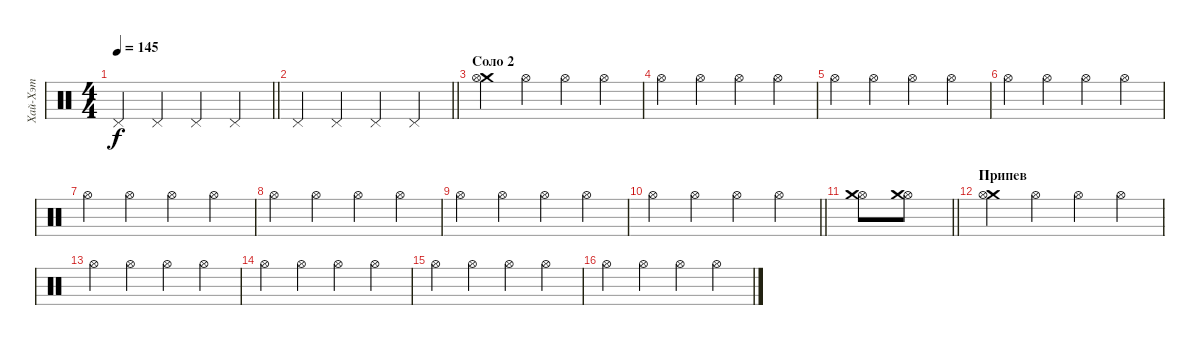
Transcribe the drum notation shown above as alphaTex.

\track ("Хай-Хэт" "Хай-Хэт") {instrument percussion}
\staff {score}
\articulation defaults
\ts (4 4)
\tempo 145
\clef neutral
\barLineRight lightlight
\ks c "Pedal Hi-Hat (hit)".4{dy f} "Pedal Hi-Hat (hit)".4 "Pedal Hi-Hat (hit)".4 "Pedal Hi-Hat (hit)".4
|
\barLineRight lightlight "Pedal Hi-Hat (hit)".4 "Pedal Hi-Hat (hit)".4 "Pedal Hi-Hat (hit)".4 "Pedal Hi-Hat (hit)".4
|
\section ("" "Соло 2")
("Crash medium (hit)" "Hi-Hat (open)").4 "Hi-Hat (open)".4 "Hi-Hat (open)".4 "Hi-Hat (open)".4 |
"Hi-Hat (open)".4 "Hi-Hat (open)".4 "Hi-Hat (open)".4 "Hi-Hat (open)".4 |
"Hi-Hat (open)".4 "Hi-Hat (open)".4 "Hi-Hat (open)".4 "Hi-Hat (open)".4 |
"Hi-Hat (open)".4 "Hi-Hat (open)".4 "Hi-Hat (open)".4 "Hi-Hat (open)".4 |
"Hi-Hat (open)".4 "Hi-Hat (open)".4 "Hi-Hat (open)".4 "Hi-Hat (open)".4 |
"Hi-Hat (open)".4 "Hi-Hat (open)".4 "Hi-Hat (open)".4 "Hi-Hat (open)".4 |
"Hi-Hat (open)".4 "Hi-Hat (open)".4 "Hi-Hat (open)".4 "Hi-Hat (open)".4 |
\barLineRight lightlight "Hi-Hat (open)".4 "Hi-Hat (open)".4 "Hi-Hat (open)".4 "Hi-Hat (open)".4
|
\barLineRight lightlight
("Hi-Hat (open)" "Crash medium (hit)").8 ("Hi-Hat (open)" "Crash medium (hit)").8 |
\section ("" "Припев")
("Crash medium (hit)" "Hi-Hat (open)").4 "Hi-Hat (open)".4 "Hi-Hat (open)".4 "Hi-Hat (open)".4 |
"Hi-Hat (open)".4 "Hi-Hat (open)".4 "Hi-Hat (open)".4 "Hi-Hat (open)".4 |
"Hi-Hat (open)".4 "Hi-Hat (open)".4 "Hi-Hat (open)".4 "Hi-Hat (open)".4 |
"Hi-Hat (open)".4 "Hi-Hat (open)".4 "Hi-Hat (open)".4 "Hi-Hat (open)".4 |
"Hi-Hat (open)".4 "Hi-Hat (open)".4 "Hi-Hat (open)".4 "Hi-Hat (open)".4
